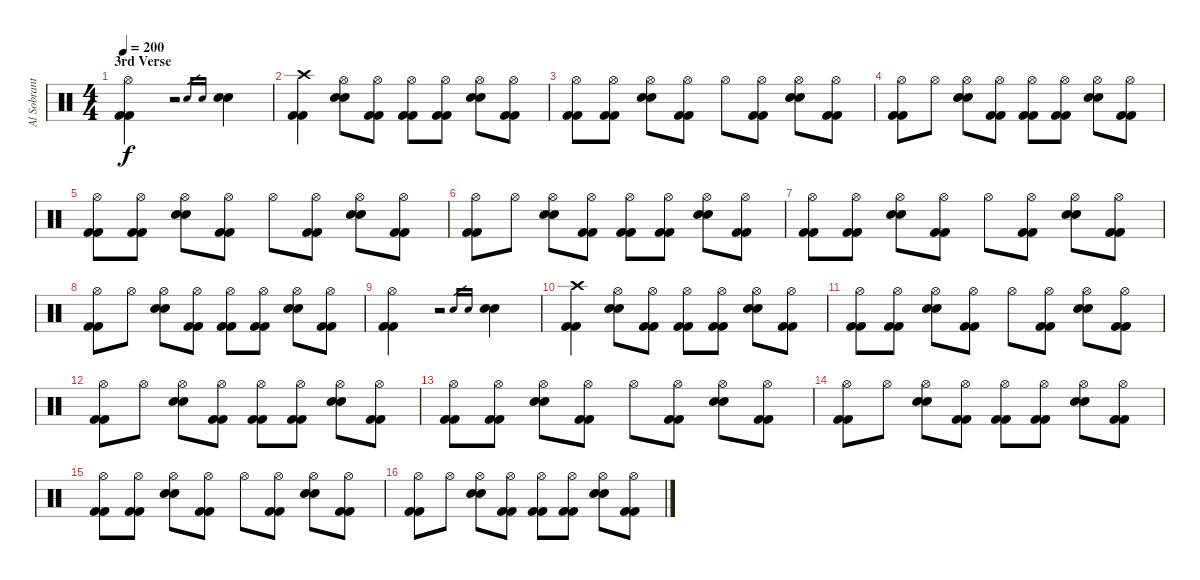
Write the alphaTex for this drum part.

\track ("Al Sobrante (Drums)" "Al Sobrant") {instrument percussion}
\staff {score}
\articulation defaults
\ts (4 4)
\section ("" "3rd Verse")
\tempo 200
\clef neutral
\ks c
("Kick (hit) 2" "Kick (hit) 2" "Hi-Hat (open)").4{dy f} r.2 "Electric Snare (hit)".16{gr} "Snare (hit) 2".16{gr} ("Electric Snare (hit)" "Electric Snare (hit)").4 |
("Kick (hit) 2" "Kick (hit) 2" "Crash high (hit)").4 ("Electric Snare (hit)" "Electric Snare (hit)" "Hi-Hat (open)").8 ("Kick (hit) 2" "Kick (hit) 2" "Hi-Hat (open)").8 ("Kick (hit) 2" "Kick (hit) 2" "Hi-Hat (open)").8 ("Kick (hit) 2" "Kick (hit) 2" "Hi-Hat (open)").8 ("Electric Snare (hit)" "Electric Snare (hit)" "Hi-Hat (open)").8 ("Kick (hit) 2" "Kick (hit) 2" "Hi-Hat (open)").8 |
("Kick (hit) 2" "Kick (hit) 2" "Hi-Hat (open)").8 ("Kick (hit) 2" "Kick (hit) 2" "Hi-Hat (open)").8 ("Electric Snare (hit)" "Electric Snare (hit)" "Hi-Hat (open)").8 ("Kick (hit) 2" "Kick (hit) 2" "Hi-Hat (open)").8 "Hi-Hat (open)".8 ("Kick (hit) 2" "Kick (hit) 2" "Hi-Hat (open)").8 ("Electric Snare (hit)" "Electric Snare (hit)" "Hi-Hat (open)").8 ("Kick (hit) 2" "Kick (hit) 2" "Hi-Hat (open)").8 |
("Kick (hit) 2" "Kick (hit) 2" "Hi-Hat (open)").8 "Hi-Hat (open)".8 ("Electric Snare (hit)" "Electric Snare (hit)" "Hi-Hat (open)").8 ("Kick (hit) 2" "Kick (hit) 2" "Hi-Hat (open)").8 ("Kick (hit) 2" "Kick (hit) 2" "Hi-Hat (open)").8 ("Kick (hit) 2" "Kick (hit) 2" "Hi-Hat (open)").8 ("Electric Snare (hit)" "Electric Snare (hit)" "Hi-Hat (open)").8 ("Kick (hit) 2" "Kick (hit) 2" "Hi-Hat (open)").8 |
("Kick (hit) 2" "Kick (hit) 2" "Hi-Hat (open)").8 ("Kick (hit) 2" "Kick (hit) 2" "Hi-Hat (open)").8 ("Electric Snare (hit)" "Electric Snare (hit)" "Hi-Hat (open)").8 ("Kick (hit) 2" "Kick (hit) 2" "Hi-Hat (open)").8 "Hi-Hat (open)".8 ("Kick (hit) 2" "Kick (hit) 2" "Hi-Hat (open)").8 ("Electric Snare (hit)" "Electric Snare (hit)" "Hi-Hat (open)").8 ("Kick (hit) 2" "Kick (hit) 2" "Hi-Hat (open)").8 |
("Kick (hit) 2" "Kick (hit) 2" "Hi-Hat (open)").8 "Hi-Hat (open)".8 ("Electric Snare (hit)" "Electric Snare (hit)" "Hi-Hat (open)").8 ("Kick (hit) 2" "Kick (hit) 2" "Hi-Hat (open)").8 ("Kick (hit) 2" "Kick (hit) 2" "Hi-Hat (open)").8 ("Kick (hit) 2" "Kick (hit) 2" "Hi-Hat (open)").8 ("Electric Snare (hit)" "Electric Snare (hit)" "Hi-Hat (open)").8 ("Kick (hit) 2" "Kick (hit) 2" "Hi-Hat (open)").8 |
("Kick (hit) 2" "Kick (hit) 2" "Hi-Hat (open)").8 ("Kick (hit) 2" "Kick (hit) 2" "Hi-Hat (open)").8 ("Electric Snare (hit)" "Electric Snare (hit)" "Hi-Hat (open)").8 ("Kick (hit) 2" "Kick (hit) 2" "Hi-Hat (open)").8 "Hi-Hat (open)".8 ("Kick (hit) 2" "Kick (hit) 2" "Hi-Hat (open)").8 ("Electric Snare (hit)" "Electric Snare (hit)" "Hi-Hat (open)").8 ("Kick (hit) 2" "Kick (hit) 2" "Hi-Hat (open)").8 |
("Kick (hit) 2" "Kick (hit) 2" "Hi-Hat (open)").8 "Hi-Hat (open)".8 ("Electric Snare (hit)" "Electric Snare (hit)" "Hi-Hat (open)").8 ("Kick (hit) 2" "Kick (hit) 2" "Hi-Hat (open)").8 ("Kick (hit) 2" "Kick (hit) 2" "Hi-Hat (open)").8 ("Kick (hit) 2" "Kick (hit) 2" "Hi-Hat (open)").8 ("Electric Snare (hit)" "Electric Snare (hit)" "Hi-Hat (open)").8 ("Kick (hit) 2" "Kick (hit) 2" "Hi-Hat (open)").8 |
("Kick (hit) 2" "Kick (hit) 2" "Hi-Hat (open)").4 r.2 "Electric Snare (hit)".16{gr} "Snare (hit) 2".16{gr} ("Electric Snare (hit)" "Electric Snare (hit)").4 |
("Kick (hit) 2" "Kick (hit) 2" "Crash high (hit)").4 ("Electric Snare (hit)" "Electric Snare (hit)" "Hi-Hat (open)").8 ("Kick (hit) 2" "Kick (hit) 2" "Hi-Hat (open)").8 ("Kick (hit) 2" "Kick (hit) 2" "Hi-Hat (open)").8 ("Kick (hit) 2" "Kick (hit) 2" "Hi-Hat (open)").8 ("Electric Snare (hit)" "Electric Snare (hit)" "Hi-Hat (open)").8 ("Kick (hit) 2" "Kick (hit) 2" "Hi-Hat (open)").8 |
("Kick (hit) 2" "Kick (hit) 2" "Hi-Hat (open)").8 ("Kick (hit) 2" "Kick (hit) 2" "Hi-Hat (open)").8 ("Electric Snare (hit)" "Electric Snare (hit)" "Hi-Hat (open)").8 ("Kick (hit) 2" "Kick (hit) 2" "Hi-Hat (open)").8 "Hi-Hat (open)".8 ("Kick (hit) 2" "Kick (hit) 2" "Hi-Hat (open)").8 ("Electric Snare (hit)" "Electric Snare (hit)" "Hi-Hat (open)").8 ("Kick (hit) 2" "Kick (hit) 2" "Hi-Hat (open)").8 |
("Kick (hit) 2" "Kick (hit) 2" "Hi-Hat (open)").8 "Hi-Hat (open)".8 ("Electric Snare (hit)" "Electric Snare (hit)" "Hi-Hat (open)").8 ("Kick (hit) 2" "Kick (hit) 2" "Hi-Hat (open)").8 ("Kick (hit) 2" "Kick (hit) 2" "Hi-Hat (open)").8 ("Kick (hit) 2" "Kick (hit) 2" "Hi-Hat (open)").8 ("Electric Snare (hit)" "Electric Snare (hit)" "Hi-Hat (open)").8 ("Kick (hit) 2" "Kick (hit) 2" "Hi-Hat (open)").8 |
("Kick (hit) 2" "Kick (hit) 2" "Hi-Hat (open)").8 ("Kick (hit) 2" "Kick (hit) 2" "Hi-Hat (open)").8 ("Electric Snare (hit)" "Electric Snare (hit)" "Hi-Hat (open)").8 ("Kick (hit) 2" "Kick (hit) 2" "Hi-Hat (open)").8 "Hi-Hat (open)".8 ("Kick (hit) 2" "Kick (hit) 2" "Hi-Hat (open)").8 ("Electric Snare (hit)" "Electric Snare (hit)" "Hi-Hat (open)").8 ("Kick (hit) 2" "Kick (hit) 2" "Hi-Hat (open)").8 |
("Kick (hit) 2" "Kick (hit) 2" "Hi-Hat (open)").8 "Hi-Hat (open)".8 ("Electric Snare (hit)" "Electric Snare (hit)" "Hi-Hat (open)").8 ("Kick (hit) 2" "Kick (hit) 2" "Hi-Hat (open)").8 ("Kick (hit) 2" "Kick (hit) 2" "Hi-Hat (open)").8 ("Kick (hit) 2" "Kick (hit) 2" "Hi-Hat (open)").8 ("Electric Snare (hit)" "Electric Snare (hit)" "Hi-Hat (open)").8 ("Kick (hit) 2" "Kick (hit) 2" "Hi-Hat (open)").8 |
("Kick (hit) 2" "Kick (hit) 2" "Hi-Hat (open)").8 ("Kick (hit) 2" "Kick (hit) 2" "Hi-Hat (open)").8 ("Electric Snare (hit)" "Electric Snare (hit)" "Hi-Hat (open)").8 ("Kick (hit) 2" "Kick (hit) 2" "Hi-Hat (open)").8 "Hi-Hat (open)".8 ("Kick (hit) 2" "Kick (hit) 2" "Hi-Hat (open)").8 ("Electric Snare (hit)" "Electric Snare (hit)" "Hi-Hat (open)").8 ("Kick (hit) 2" "Kick (hit) 2" "Hi-Hat (open)").8 |
("Kick (hit) 2" "Kick (hit) 2" "Hi-Hat (open)").8 "Hi-Hat (open)".8 ("Electric Snare (hit)" "Electric Snare (hit)" "Hi-Hat (open)").8 ("Kick (hit) 2" "Kick (hit) 2" "Hi-Hat (open)").8 ("Kick (hit) 2" "Kick (hit) 2" "Hi-Hat (open)").8 ("Kick (hit) 2" "Kick (hit) 2" "Hi-Hat (open)").8 ("Electric Snare (hit)" "Electric Snare (hit)" "Hi-Hat (open)").8 ("Kick (hit) 2" "Kick (hit) 2" "Hi-Hat (open)").8
